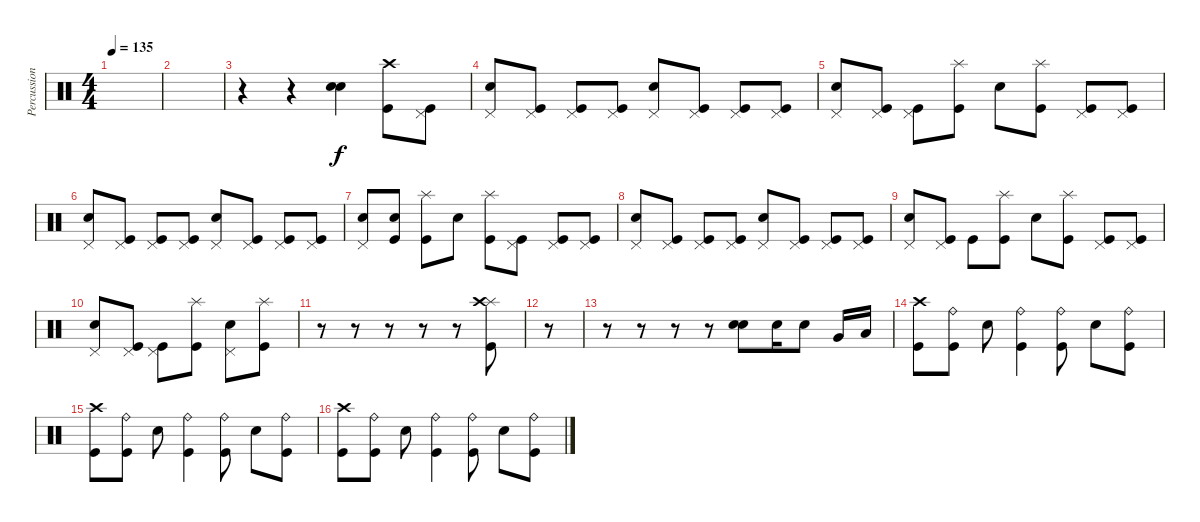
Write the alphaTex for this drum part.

\track ("Percussion" "Percussion") {instrument percussion}
\staff {score}
\articulation defaults
\ts (4 4)
\tempo 135
\clef neutral
\ks c
|
|
r.4 r.4 ("Electric Snare (hit)" "Electric Snare (hit)").4 ("Kick (hit)" "Crash high (hit)").8 ("Kick (hit)" "Pedal Hi-Hat (hit)").8 |
("Electric Snare (hit)" "Pedal Hi-Hat (hit)").8 ("Kick (hit)" "Pedal Hi-Hat (hit)").8 ("Kick (hit)" "Pedal Hi-Hat (hit)").8 ("Kick (hit)" "Pedal Hi-Hat (hit)").8 ("Electric Snare (hit)" "Pedal Hi-Hat (hit)").8 ("Kick (hit)" "Pedal Hi-Hat (hit)").8 ("Kick (hit)" "Pedal Hi-Hat (hit)").8 ("Kick (hit)" "Pedal Hi-Hat (hit)").8 |
("Electric Snare (hit)" "Pedal Hi-Hat (hit)").8 ("Pedal Hi-Hat (hit)" "Kick (hit)").8 ("Pedal Hi-Hat (hit)" "Kick (hit)").8 ("Kick (hit)" "Splash (hit)").8 "Electric Snare (hit)".8 ("Kick (hit)" "Splash (hit)").8 ("Kick (hit)" "Pedal Hi-Hat (hit)").8 ("Kick (hit)" "Pedal Hi-Hat (hit)").8 |
("Pedal Hi-Hat (hit)" "Electric Snare (hit)").8 ("Kick (hit)" "Pedal Hi-Hat (hit)").8 ("Kick (hit)" "Pedal Hi-Hat (hit)").8 ("Kick (hit)" "Pedal Hi-Hat (hit)").8 ("Pedal Hi-Hat (hit)" "Electric Snare (hit)").8 ("Kick (hit)" "Pedal Hi-Hat (hit)").8 ("Kick (hit)" "Pedal Hi-Hat (hit)").8 ("Kick (hit)" "Pedal Hi-Hat (hit)").8 |
("Electric Snare (hit)" "Pedal Hi-Hat (hit)").8 ("Snare (hit)" "Kick (hit)").8 ("Splash (hit)" "Kick (hit)").8 "Electric Snare (hit)".8 ("Splash (hit)" "Kick (hit)").8 ("Kick (hit)" "Pedal Hi-Hat (hit)").8 ("Kick (hit)" "Pedal Hi-Hat (hit)").8 ("Kick (hit)" "Pedal Hi-Hat (hit)").8 |
("Electric Snare (hit)" "Pedal Hi-Hat (hit)").8 ("Kick (hit)" "Pedal Hi-Hat (hit)").8 ("Kick (hit)" "Pedal Hi-Hat (hit)").8 ("Kick (hit)" "Pedal Hi-Hat (hit)").8 ("Electric Snare (hit)" "Pedal Hi-Hat (hit)").8 ("Pedal Hi-Hat (hit)" "Kick (hit)").8 ("Pedal Hi-Hat (hit)" "Kick (hit)").8 ("Pedal Hi-Hat (hit)" "Kick (hit)").8 |
("Electric Snare (hit)" "Pedal Hi-Hat (hit)").8 ("Kick (hit)" "Pedal Hi-Hat (hit)").8 "Kick (hit)".8 ("Kick (hit)" "Splash (hit)").8 "Electric Snare (hit)".8 ("Kick (hit)" "Splash (hit)").8 ("Kick (hit)" "Pedal Hi-Hat (hit)").8 ("Kick (hit)" "Pedal Hi-Hat (hit)").8 |
("Electric Snare (hit)" "Pedal Hi-Hat (hit)").8 ("Kick (hit)" "Pedal Hi-Hat (hit)").8 ("Pedal Hi-Hat (hit)" "Kick (hit)").8 ("Splash (hit)" "Kick (hit)").8 ("Electric Snare (hit)" "Pedal Hi-Hat (hit)").8 ("Splash (hit)" "Kick (hit)").8 |
r.8 r.8 r.8 r.8 r.8 ("Splash (hit)" "Crash high (hit)" "Kick (hit)").8 |
r.8 |
r.8 r.8 r.8 r.8 ("Electric Snare (hit)" "Electric Snare (hit)").8 "Electric Snare (hit)".16 "Electric Snare (hit)".8 "Very Low Tom (hit)".16 "Low Floor Tom (hit)".16 |
("Crash high (hit)" "Kick (hit)").8 ("Ride (bell)" "Kick (hit)").8 "Electric Snare (hit)".8 ("Ride (bell)" "Kick (hit)").4 ("Ride (bell)" "Kick (hit)").8 "Electric Snare (hit)".8 ("Ride (bell)" "Kick (hit)").8 |
("Crash high (hit)" "Kick (hit)").8 ("Ride (bell)" "Kick (hit)").8 "Electric Snare (hit)".8 ("Ride (bell)" "Kick (hit)").4 ("Ride (bell)" "Kick (hit)").8 "Electric Snare (hit)".8 ("Ride (bell)" "Kick (hit)").8 |
("Crash high (hit)" "Kick (hit)").8 ("Ride (bell)" "Kick (hit)").8 "Electric Snare (hit)".8 ("Ride (bell)" "Kick (hit)").4 ("Ride (bell)" "Kick (hit)").8 "Electric Snare (hit)".8 ("Ride (bell)" "Kick (hit)").8
